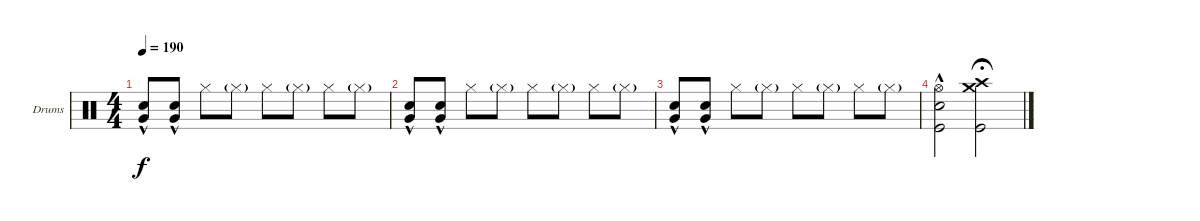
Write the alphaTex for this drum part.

\bracketExtendMode groupsimilarinstruments
\firstSystemTrackNameOrientation horizontal
\otherSystemsTrackNameOrientation horizontal
\track ("Drumkit" "Drums") {instrument percussion}
\staff {score}
\articulation defaults
\ts (4 4)
\tempo 190
\clef neutral
\scale
0.333333
\ks c
("Snare (hit) 2"{hac} "Very Low Tom (hit)").8{dy f} ("Snare (hit) 2"{hac} "Very Low Tom (hit)").8 "Hi-Hat (closed)".8 "Hi-Hat (closed)"{g}.8 "Hi-Hat (closed)".8 "Hi-Hat (closed)"{g}.8 "Hi-Hat (closed)".8 "Hi-Hat (closed)"{g}.8 |
\scale
0.333333 ("Snare (hit) 2"{hac} "Very Low Tom (hit)").8 ("Snare (hit) 2"{hac} "Very Low Tom (hit)").8 "Hi-Hat (closed)".8 "Hi-Hat (closed)"{g}.8 "Hi-Hat (closed)".8 "Hi-Hat (closed)"{g}.8 "Hi-Hat (closed)".8 "Hi-Hat (closed)"{g}.8 |
("Snare (hit) 2"{hac} "Very Low Tom (hit)").8 ("Snare (hit) 2"{hac} "Very Low Tom (hit)").8 "Hi-Hat (closed)".8 "Hi-Hat (closed)"{g}.8 "Hi-Hat (closed)".8 "Hi-Hat (closed)"{g}.8 "Hi-Hat (closed)".8 "Hi-Hat (closed)"{g}.8 |
("Kick (hit)" "Snare (hit) 2"{hac} "Hi-Hat (open)").2 ("Kick (hit)" "Crash medium (hit)" "Crash high (hit)").2{fermata (medium 1)}
